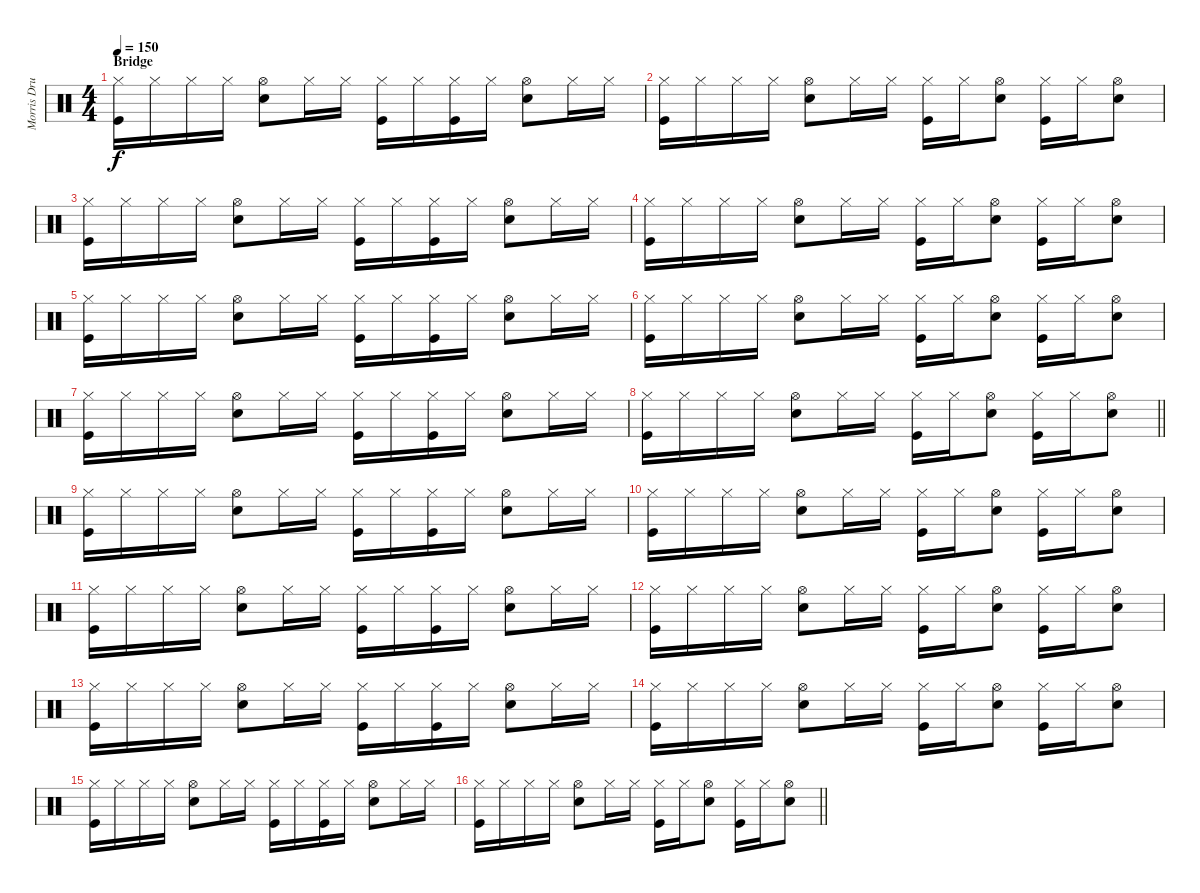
\track ("Morris Drums" "Morris Dru") {instrument percussion}
\staff {score}
\articulation defaults
\ts (4 4)
\section ("" "Bridge")
\tempo 150
\clef neutral
\ks c
("Hi-Hat (closed)" "Kick (hit)").16{dy f} "Hi-Hat (closed)".16 "Hi-Hat (closed)".16 "Hi-Hat (closed)".16 ("Hi-Hat (open)" "Snare (hit) 2").8 "Hi-Hat (closed)".16 "Hi-Hat (closed)".16 ("Hi-Hat (closed)" "Kick (hit)").16 "Hi-Hat (closed)".16 ("Hi-Hat (closed)" "Kick (hit)").16 "Hi-Hat (closed)".16 ("Hi-Hat (open)" "Snare (hit) 2").8 "Hi-Hat (closed)".16 "Hi-Hat (closed)".16 |
("Hi-Hat (closed)" "Kick (hit)").16 "Hi-Hat (closed)".16 "Hi-Hat (closed)".16 "Hi-Hat (closed)".16 ("Hi-Hat (open)" "Snare (hit) 2").8 "Hi-Hat (closed)".16 "Hi-Hat (closed)".16 ("Hi-Hat (closed)" "Kick (hit)").16 "Hi-Hat (closed)".16 ("Hi-Hat (open)" "Snare (hit) 2").8 ("Hi-Hat (closed)" "Kick (hit)").16 "Hi-Hat (closed)".16 ("Hi-Hat (open)" "Snare (hit) 2").8 |
("Hi-Hat (closed)" "Kick (hit)").16 "Hi-Hat (closed)".16 "Hi-Hat (closed)".16 "Hi-Hat (closed)".16 ("Hi-Hat (open)" "Snare (hit) 2").8 "Hi-Hat (closed)".16 "Hi-Hat (closed)".16 ("Hi-Hat (closed)" "Kick (hit)").16 "Hi-Hat (closed)".16 ("Hi-Hat (closed)" "Kick (hit)").16 "Hi-Hat (closed)".16 ("Hi-Hat (open)" "Snare (hit) 2").8 "Hi-Hat (closed)".16 "Hi-Hat (closed)".16 |
("Hi-Hat (closed)" "Kick (hit)").16 "Hi-Hat (closed)".16 "Hi-Hat (closed)".16 "Hi-Hat (closed)".16 ("Hi-Hat (open)" "Snare (hit) 2").8 "Hi-Hat (closed)".16 "Hi-Hat (closed)".16 ("Hi-Hat (closed)" "Kick (hit)").16 "Hi-Hat (closed)".16 ("Hi-Hat (open)" "Snare (hit) 2").8 ("Hi-Hat (closed)" "Kick (hit)").16 "Hi-Hat (closed)".16 ("Hi-Hat (open)" "Snare (hit) 2").8 |
("Hi-Hat (closed)" "Kick (hit)").16 "Hi-Hat (closed)".16 "Hi-Hat (closed)".16 "Hi-Hat (closed)".16 ("Hi-Hat (open)" "Snare (hit) 2").8 "Hi-Hat (closed)".16 "Hi-Hat (closed)".16 ("Hi-Hat (closed)" "Kick (hit)").16 "Hi-Hat (closed)".16 ("Hi-Hat (closed)" "Kick (hit)").16 "Hi-Hat (closed)".16 ("Hi-Hat (open)" "Snare (hit) 2").8 "Hi-Hat (closed)".16 "Hi-Hat (closed)".16 |
("Hi-Hat (closed)" "Kick (hit)").16 "Hi-Hat (closed)".16 "Hi-Hat (closed)".16 "Hi-Hat (closed)".16 ("Hi-Hat (open)" "Snare (hit) 2").8 "Hi-Hat (closed)".16 "Hi-Hat (closed)".16 ("Hi-Hat (closed)" "Kick (hit)").16 "Hi-Hat (closed)".16 ("Hi-Hat (open)" "Snare (hit) 2").8 ("Hi-Hat (closed)" "Kick (hit)").16 "Hi-Hat (closed)".16 ("Hi-Hat (open)" "Snare (hit) 2").8 |
("Hi-Hat (closed)" "Kick (hit)").16 "Hi-Hat (closed)".16 "Hi-Hat (closed)".16 "Hi-Hat (closed)".16 ("Hi-Hat (open)" "Snare (hit) 2").8 "Hi-Hat (closed)".16 "Hi-Hat (closed)".16 ("Hi-Hat (closed)" "Kick (hit)").16 "Hi-Hat (closed)".16 ("Hi-Hat (closed)" "Kick (hit)").16 "Hi-Hat (closed)".16 ("Hi-Hat (open)" "Snare (hit) 2").8 "Hi-Hat (closed)".16 "Hi-Hat (closed)".16 |
\barLineRight lightlight
("Hi-Hat (closed)" "Kick (hit)").16 "Hi-Hat (closed)".16 "Hi-Hat (closed)".16 "Hi-Hat (closed)".16 ("Hi-Hat (open)" "Snare (hit) 2").8 "Hi-Hat (closed)".16 "Hi-Hat (closed)".16 ("Hi-Hat (closed)" "Kick (hit)").16 "Hi-Hat (closed)".16 ("Hi-Hat (open)" "Snare (hit) 2").8 ("Hi-Hat (closed)" "Kick (hit)").16 "Hi-Hat (closed)".16 ("Hi-Hat (open)" "Snare (hit) 2").8 |
("Hi-Hat (closed)" "Kick (hit)").16 "Hi-Hat (closed)".16 "Hi-Hat (closed)".16 "Hi-Hat (closed)".16 ("Hi-Hat (open)" "Snare (hit) 2").8 "Hi-Hat (closed)".16 "Hi-Hat (closed)".16 ("Hi-Hat (closed)" "Kick (hit)").16 "Hi-Hat (closed)".16 ("Hi-Hat (closed)" "Kick (hit)").16 "Hi-Hat (closed)".16 ("Hi-Hat (open)" "Snare (hit) 2").8 "Hi-Hat (closed)".16 "Hi-Hat (closed)".16 |
("Hi-Hat (closed)" "Kick (hit)").16 "Hi-Hat (closed)".16 "Hi-Hat (closed)".16 "Hi-Hat (closed)".16 ("Hi-Hat (open)" "Snare (hit) 2").8 "Hi-Hat (closed)".16 "Hi-Hat (closed)".16 ("Hi-Hat (closed)" "Kick (hit)").16 "Hi-Hat (closed)".16 ("Hi-Hat (open)" "Snare (hit) 2").8 ("Hi-Hat (closed)" "Kick (hit)").16 "Hi-Hat (closed)".16 ("Hi-Hat (open)" "Snare (hit) 2").8 |
("Hi-Hat (closed)" "Kick (hit)").16 "Hi-Hat (closed)".16 "Hi-Hat (closed)".16 "Hi-Hat (closed)".16 ("Hi-Hat (open)" "Snare (hit) 2").8 "Hi-Hat (closed)".16 "Hi-Hat (closed)".16 ("Hi-Hat (closed)" "Kick (hit)").16 "Hi-Hat (closed)".16 ("Hi-Hat (closed)" "Kick (hit)").16 "Hi-Hat (closed)".16 ("Hi-Hat (open)" "Snare (hit) 2").8 "Hi-Hat (closed)".16 "Hi-Hat (closed)".16 |
("Hi-Hat (closed)" "Kick (hit)").16 "Hi-Hat (closed)".16 "Hi-Hat (closed)".16 "Hi-Hat (closed)".16 ("Hi-Hat (open)" "Snare (hit) 2").8 "Hi-Hat (closed)".16 "Hi-Hat (closed)".16 ("Hi-Hat (closed)" "Kick (hit)").16 "Hi-Hat (closed)".16 ("Hi-Hat (open)" "Snare (hit) 2").8 ("Hi-Hat (closed)" "Kick (hit)").16 "Hi-Hat (closed)".16 ("Hi-Hat (open)" "Snare (hit) 2").8 |
("Hi-Hat (closed)" "Kick (hit)").16 "Hi-Hat (closed)".16 "Hi-Hat (closed)".16 "Hi-Hat (closed)".16 ("Hi-Hat (open)" "Snare (hit) 2").8 "Hi-Hat (closed)".16 "Hi-Hat (closed)".16 ("Hi-Hat (closed)" "Kick (hit)").16 "Hi-Hat (closed)".16 ("Hi-Hat (closed)" "Kick (hit)").16 "Hi-Hat (closed)".16 ("Hi-Hat (open)" "Snare (hit) 2").8 "Hi-Hat (closed)".16 "Hi-Hat (closed)".16 |
("Hi-Hat (closed)" "Kick (hit)").16 "Hi-Hat (closed)".16 "Hi-Hat (closed)".16 "Hi-Hat (closed)".16 ("Hi-Hat (open)" "Snare (hit) 2").8 "Hi-Hat (closed)".16 "Hi-Hat (closed)".16 ("Hi-Hat (closed)" "Kick (hit)").16 "Hi-Hat (closed)".16 ("Hi-Hat (open)" "Snare (hit) 2").8 ("Hi-Hat (closed)" "Kick (hit)").16 "Hi-Hat (closed)".16 ("Hi-Hat (open)" "Snare (hit) 2").8 |
("Hi-Hat (closed)" "Kick (hit)").16 "Hi-Hat (closed)".16 "Hi-Hat (closed)".16 "Hi-Hat (closed)".16 ("Hi-Hat (open)" "Snare (hit) 2").8 "Hi-Hat (closed)".16 "Hi-Hat (closed)".16 ("Hi-Hat (closed)" "Kick (hit)").16 "Hi-Hat (closed)".16 ("Hi-Hat (closed)" "Kick (hit)").16 "Hi-Hat (closed)".16 ("Hi-Hat (open)" "Snare (hit) 2").8 "Hi-Hat (closed)".16 "Hi-Hat (closed)".16 |
\barLineRight lightlight
("Hi-Hat (closed)" "Kick (hit)").16 "Hi-Hat (closed)".16 "Hi-Hat (closed)".16 "Hi-Hat (closed)".16 ("Hi-Hat (open)" "Snare (hit) 2").8 "Hi-Hat (closed)".16 "Hi-Hat (closed)".16 ("Hi-Hat (closed)" "Kick (hit)").16 "Hi-Hat (closed)".16 ("Hi-Hat (open)" "Snare (hit) 2").8 ("Hi-Hat (closed)" "Kick (hit)").16 "Hi-Hat (closed)".16 ("Hi-Hat (open)" "Snare (hit) 2").8
